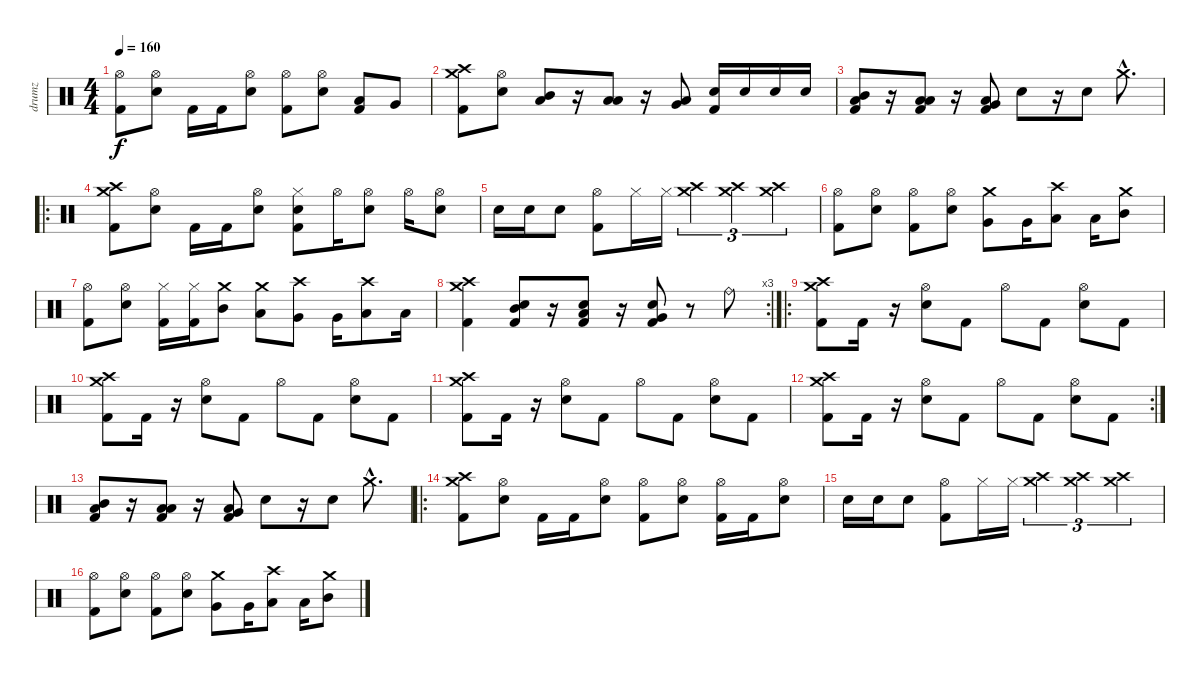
\track ("drumz" "drumz") {instrument percussion}
\staff {score}
\articulation defaults
\ts (4 4)
\tempo 160
\clef neutral
\ks c
("Hi-Hat (open)" "Kick (hit) 2").8{dy f} ("Hi-Hat (open)" "Snare (hit) 2").8 "Kick (hit) 2".16 "Kick (hit) 2".16 ("Hi-Hat (open)" "Snare (hit) 2").8 ("Hi-Hat (open)" "Kick (hit) 2").8 ("Hi-Hat (open)" "Snare (hit) 2").8 ("Low Tom (hit)" "Kick (hit) 2").8 "Very Low Tom (hit)".8 |
("Crash high (hit)" "Crash medium (hit)" "Kick (hit) 2").8 ("Hi-Hat (open)" "Snare (hit) 2").8 ("Mid Tom (hit)" "Low Floor Tom (hit)").8 r.16 ("Low Tom (hit)" "Low Floor Tom (hit)").8 r.16 ("Very Low Tom (hit)" "Low Floor Tom (hit)").8 ("Snare (hit) 2" "Kick (hit) 2").16 "Snare (hit) 2".16 "Snare (hit) 2".16 "Snare (hit) 2".16 |
("Mid Tom (hit)" "Low Floor Tom (hit)" "Kick (hit) 2").8 r.16 ("Low Tom (hit)" "Low Floor Tom (hit)" "Kick (hit) 2").8 r.16 ("Very Low Tom (hit)" "Low Floor Tom (hit)" "Kick (hit) 2").8 "Snare (hit) 2".8 r.16 "Snare (hit) 2".8 "Crash medium (hit)"{hac}.8{d} |
\ro
("Crash medium (hit)" "Crash high (hit)" "Kick (hit) 2").8 ("Hi-Hat (open)" "Snare (hit) 2").8 "Kick (hit) 2".16 "Kick (hit) 2".16 ("Hi-Hat (open)" "Snare (hit) 2").8 ("Hi-Hat (closed)" "Snare (hit) 2" "Kick (hit) 2").8 "Hi-Hat (open)".16 ("Hi-Hat (open)" "Snare (hit) 2").8 "Hi-Hat (open)".16 ("Hi-Hat (open)" "Snare (hit) 2").8 |
"Snare (hit) 2".16 "Snare (hit) 2".16 "Snare (hit) 2".8 ("Hi-Hat (open)" "Kick (hit) 2").8 "Hi-Hat (closed)".16 "Hi-Hat (closed)".16 ("Crash medium (hit)" "Crash high (hit)").4{tu (3 2)} ("Crash medium (hit)" "Crash high (hit)").4{tu (3 2)} ("Crash medium (hit)" "Crash high (hit)").4{tu (3 2)} |
("Hi-Hat (open)" "Kick (hit) 2").8 ("Hi-Hat (open)" "Snare (hit) 2").8 ("Hi-Hat (open)" "Kick (hit) 2").8 ("Hi-Hat (open)" "Snare (hit) 2").8 ("Crash medium (hit)" "Very Low Tom (hit)").8 "Very Low Tom (hit)".16 ("Crash high (hit)" "Low Tom (hit)").8 "Low Tom (hit)".16 ("Crash medium (hit)" "Mid Tom (hit)").8 |
("Hi-Hat (open)" "Kick (hit) 2").8 ("Hi-Hat (open)" "Snare (hit) 2").8 ("Hi-Hat (closed)" "Kick (hit) 2").16 ("Hi-Hat (closed)" "Kick (hit) 2").16 ("Crash medium (hit)" "Mid Tom (hit)").8 ("Crash medium (hit)" "Low Tom (hit)").8 ("Crash high (hit)" "Very Low Tom (hit)").8 "Very Low Tom (hit)".16 ("Crash high (hit)" "Low Floor Tom (hit)").8 "Low Floor Tom (hit)".16 |
\rc 3
("Crash medium (hit)" "Crash high (hit)" "Kick (hit) 2").4 ("Mid Tom (hit)" "Snare (hit) 2" "Kick (hit) 2").8 r.16 ("Low Tom (hit)" "Snare (hit) 2" "Kick (hit) 2").8 r.16 ("Very Low Tom (hit)" "Snare (hit) 2" "Kick (hit) 2").8 r.8 "Ride (bell)".8 |
\ro
("Crash medium (hit)" "Crash high (hit)" "Kick (hit) 2").8 "Kick (hit) 2".16 r.16 ("Hi-Hat (open)" "Snare (hit) 2").8 "Kick (hit) 2".8 "Hi-Hat (open)".8 "Kick (hit) 2".8 ("Hi-Hat (open)" "Snare (hit) 2").8 "Kick (hit) 2".8 |
("Crash medium (hit)" "Crash high (hit)" "Kick (hit) 2").8 "Kick (hit) 2".16 r.16 ("Hi-Hat (open)" "Snare (hit) 2").8 "Kick (hit) 2".8 "Hi-Hat (open)".8 "Kick (hit) 2".8 ("Hi-Hat (open)" "Snare (hit) 2").8 "Kick (hit) 2".8 |
("Crash medium (hit)" "Crash high (hit)" "Kick (hit) 2").8 "Kick (hit) 2".16 r.16 ("Hi-Hat (open)" "Snare (hit) 2").8 "Kick (hit) 2".8 "Hi-Hat (open)".8 "Kick (hit) 2".8 ("Hi-Hat (open)" "Snare (hit) 2").8 "Kick (hit) 2".8 |
\rc 2
("Crash medium (hit)" "Crash high (hit)" "Kick (hit) 2").8 "Kick (hit) 2".16 r.16 ("Hi-Hat (open)" "Snare (hit) 2").8 "Kick (hit) 2".8 "Hi-Hat (open)".8 "Kick (hit) 2".8 ("Hi-Hat (open)" "Snare (hit) 2").8 "Kick (hit) 2".8 |
("Mid Tom (hit)" "Low Floor Tom (hit)" "Kick (hit) 2").8 r.16 ("Low Tom (hit)" "Low Floor Tom (hit)" "Kick (hit) 2").8 r.16 ("Very Low Tom (hit)" "Low Floor Tom (hit)" "Kick (hit) 2").8 "Snare (hit) 2".8 r.16 "Snare (hit) 2".8 "Crash medium (hit)"{hac}.8{d} |
\ro
("Crash medium (hit)" "Crash high (hit)" "Kick (hit) 2").8 ("Hi-Hat (open)" "Snare (hit) 2").8 "Kick (hit) 2".16 "Kick (hit) 2".16 ("Hi-Hat (open)" "Snare (hit) 2").8 ("Hi-Hat (open)" "Kick (hit) 2").8 ("Hi-Hat (open)" "Snare (hit) 2").8 ("Hi-Hat (open)" "Kick (hit) 2").16 "Kick (hit) 2".16 ("Hi-Hat (open)" "Snare (hit) 2").8 |
"Snare (hit) 2".16 "Snare (hit) 2".16 "Snare (hit) 2".8 ("Hi-Hat (open)" "Kick (hit) 2").8 "Hi-Hat (closed)".16 "Hi-Hat (closed)".16 ("Crash medium (hit)" "Crash high (hit)").4{tu (3 2)} ("Crash medium (hit)" "Crash high (hit)").4{tu (3 2)} ("Crash medium (hit)" "Crash high (hit)").4{tu (3 2)} |
("Hi-Hat (open)" "Kick (hit) 2").8 ("Hi-Hat (open)" "Snare (hit) 2").8 ("Hi-Hat (open)" "Kick (hit) 2").8 ("Hi-Hat (open)" "Snare (hit) 2").8 ("Crash medium (hit)" "Very Low Tom (hit)").8 "Very Low Tom (hit)".16 ("Crash high (hit)" "Low Tom (hit)").8 "Low Tom (hit)".16 ("Crash medium (hit)" "Mid Tom (hit)").8
